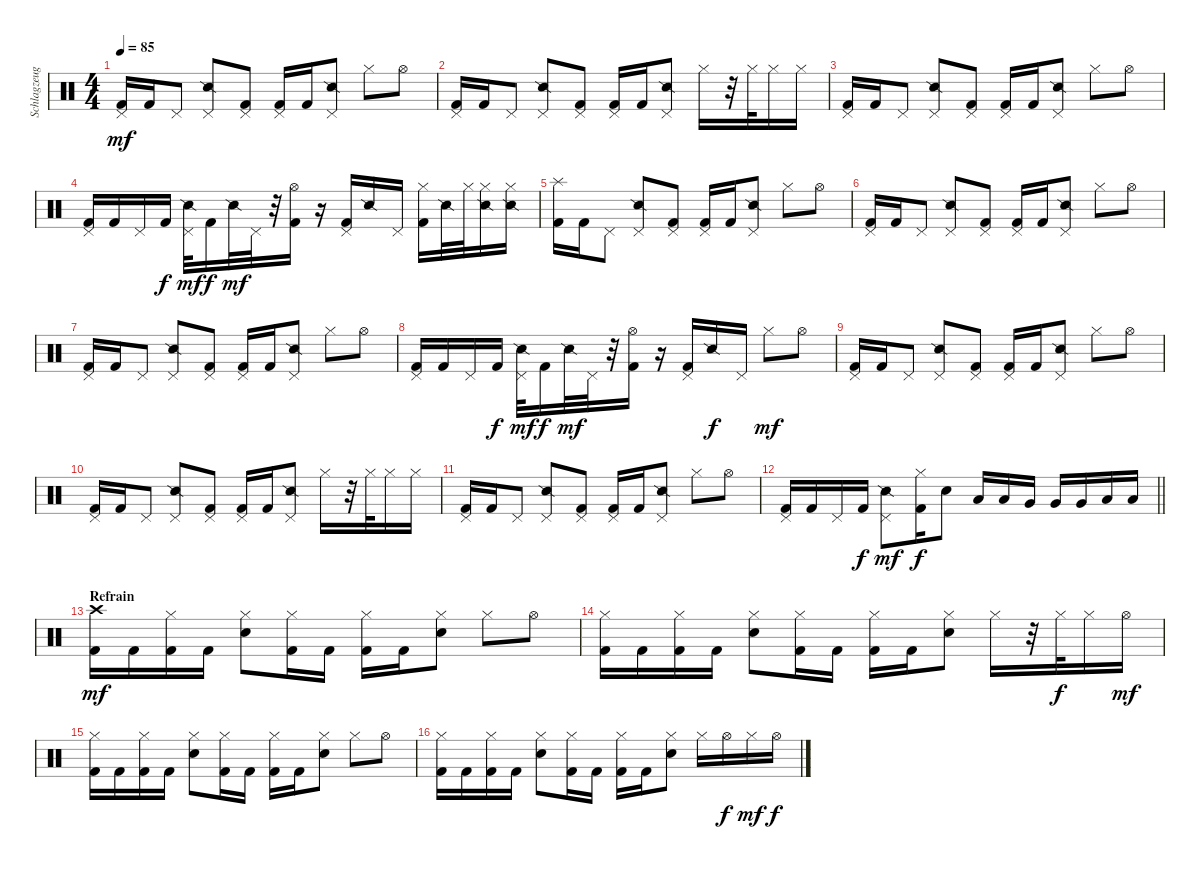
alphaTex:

\track ("Schlagzeug" "Schlagzeug") {instrument percussion}
\staff {score}
\articulation defaults
\ts (4 4)
\tempo 85
\clef neutral
\ks c
("Pedal Hi-Hat (hit)" "Kick (hit) 2").16{dy mf} "Kick (hit) 2".16 "Pedal Hi-Hat (hit)".8 ("Pedal Hi-Hat (hit)" "Snare (side stick) 2").8 ("Pedal Hi-Hat (hit)" "Kick (hit) 2").8 ("Pedal Hi-Hat (hit)" "Kick (hit) 2").16 "Kick (hit) 2".16 ("Pedal Hi-Hat (hit)" "Snare (side stick) 2").8 "Hi-Hat (closed)".8 "Hi-Hat (open)".8 |
("Pedal Hi-Hat (hit)" "Kick (hit) 2").16 "Kick (hit) 2".16 "Pedal Hi-Hat (hit)".8 ("Pedal Hi-Hat (hit)" "Snare (side stick) 2").8 ("Pedal Hi-Hat (hit)" "Kick (hit) 2").8 ("Pedal Hi-Hat (hit)" "Kick (hit) 2").16 "Kick (hit) 2".16 ("Pedal Hi-Hat (hit)" "Snare (side stick) 2").8 "Hi-Hat (closed)".16 r.32 "Hi-Hat (closed)".32 "Hi-Hat (closed)".16 "Hi-Hat (closed)".16 |
("Pedal Hi-Hat (hit)" "Kick (hit) 2").16 "Kick (hit) 2".16 "Pedal Hi-Hat (hit)".8 ("Pedal Hi-Hat (hit)" "Snare (side stick) 2").8 ("Pedal Hi-Hat (hit)" "Kick (hit) 2").8 ("Pedal Hi-Hat (hit)" "Kick (hit) 2").16 "Kick (hit) 2".16 ("Pedal Hi-Hat (hit)" "Snare (side stick) 2").8 "Hi-Hat (closed)".8 "Hi-Hat (open)".8 |
("Pedal Hi-Hat (hit)" "Kick (hit) 2").16 "Kick (hit) 2".16 "Pedal Hi-Hat (hit)".16 "Kick (hit) 2".16{dy f} ("Pedal Hi-Hat (hit)" "Snare (side stick) 2").32{dy mf} "Kick (hit) 2".16{dy f} "Snare (side stick) 2".32{dy mf} "Pedal Hi-Hat (hit)".32 r.32 ("Hi-Hat (open)" "Kick (hit) 2").16 r.16 ("Pedal Hi-Hat (hit)" "Kick (hit) 2").16 "Snare (side stick) 2".16 "Pedal Hi-Hat (hit)".16 ("Hi-Hat (closed)" "Kick (hit) 2").16 "Snare (side stick) 2".32 "Hi-Hat (closed)".32 ("Hi-Hat (closed)" "Snare (side stick) 2").16 ("Hi-Hat (closed)" "Snare (side stick) 2").16 |
("Splash (hit)" "Kick (hit) 2").16 "Kick (hit) 2".16 "Pedal Hi-Hat (hit)".8 ("Pedal Hi-Hat (hit)" "Snare (side stick) 2").8 ("Pedal Hi-Hat (hit)" "Kick (hit) 2").8 ("Pedal Hi-Hat (hit)" "Kick (hit) 2").16 "Kick (hit) 2".16 ("Pedal Hi-Hat (hit)" "Snare (side stick) 2").8 "Hi-Hat (closed)".8 "Hi-Hat (open)".8 |
("Pedal Hi-Hat (hit)" "Kick (hit) 2").16 "Kick (hit) 2".16 "Pedal Hi-Hat (hit)".8 ("Pedal Hi-Hat (hit)" "Snare (side stick) 2").8 ("Pedal Hi-Hat (hit)" "Kick (hit) 2").8 ("Pedal Hi-Hat (hit)" "Kick (hit) 2").16 "Kick (hit) 2".16 ("Pedal Hi-Hat (hit)" "Snare (side stick) 2").8 "Hi-Hat (closed)".8 "Hi-Hat (open)".8 |
("Pedal Hi-Hat (hit)" "Kick (hit) 2").16 "Kick (hit) 2".16 "Pedal Hi-Hat (hit)".8 ("Pedal Hi-Hat (hit)" "Snare (side stick) 2").8 ("Pedal Hi-Hat (hit)" "Kick (hit) 2").8 ("Pedal Hi-Hat (hit)" "Kick (hit) 2").16 "Kick (hit) 2".16 ("Pedal Hi-Hat (hit)" "Snare (side stick) 2").8 "Hi-Hat (closed)".8 "Hi-Hat (open)".8 |
("Pedal Hi-Hat (hit)" "Kick (hit) 2").16 "Kick (hit) 2".16 "Pedal Hi-Hat (hit)".16 "Kick (hit) 2".16{dy f} ("Pedal Hi-Hat (hit)" "Snare (side stick) 2").32{dy mf} "Kick (hit) 2".16{dy f} "Snare (side stick) 2".32{dy mf} "Pedal Hi-Hat (hit)".32 r.32 ("Hi-Hat (open)" "Kick (hit) 2").16 r.16 ("Pedal Hi-Hat (hit)" "Kick (hit) 2").16 "Snare (side stick) 2".16{dy f} "Pedal Hi-Hat (hit)".16 "Hi-Hat (closed)".8{dy mf} "Hi-Hat (open)".8 |
("Pedal Hi-Hat (hit)" "Kick (hit) 2").16 "Kick (hit) 2".16 "Pedal Hi-Hat (hit)".8 ("Pedal Hi-Hat (hit)" "Snare (side stick) 2").8 ("Pedal Hi-Hat (hit)" "Kick (hit) 2").8 ("Pedal Hi-Hat (hit)" "Kick (hit) 2").16 "Kick (hit) 2".16 ("Pedal Hi-Hat (hit)" "Snare (side stick) 2").8 "Hi-Hat (closed)".8 "Hi-Hat (open)".8 |
("Pedal Hi-Hat (hit)" "Kick (hit) 2").16 "Kick (hit) 2".16 "Pedal Hi-Hat (hit)".8 ("Pedal Hi-Hat (hit)" "Snare (side stick) 2").8 ("Pedal Hi-Hat (hit)" "Kick (hit) 2").8 ("Pedal Hi-Hat (hit)" "Kick (hit) 2").16 "Kick (hit) 2".16 ("Pedal Hi-Hat (hit)" "Snare (side stick) 2").8 "Hi-Hat (closed)".16 r.32 "Hi-Hat (closed)".32 "Hi-Hat (closed)".16 "Hi-Hat (closed)".16 |
("Pedal Hi-Hat (hit)" "Kick (hit) 2").16 "Kick (hit) 2".16 "Pedal Hi-Hat (hit)".8 ("Pedal Hi-Hat (hit)" "Snare (side stick) 2").8 ("Pedal Hi-Hat (hit)" "Kick (hit) 2").8 ("Pedal Hi-Hat (hit)" "Kick (hit) 2").16 "Kick (hit) 2".16 ("Pedal Hi-Hat (hit)" "Snare (side stick) 2").8 "Hi-Hat (closed)".8 "Hi-Hat (open)".8 |
\barLineRight lightlight
("Pedal Hi-Hat (hit)" "Kick (hit) 2").16 "Kick (hit) 2".16 "Pedal Hi-Hat (hit)".16 "Kick (hit) 2".16{dy f} ("Pedal Hi-Hat (hit)" "Snare (side stick) 2").8{dy mf} ("Hi-Hat (closed)" "Kick (hit) 2").16{dy f} "Snare (hit) 2".8 "Low Tom (hit)".16 "Low Tom (hit)".16 "Very Low Tom (hit)".16 "Very Low Tom (hit)".16 "Very Low Tom (hit)".16 "Low Floor Tom (hit)".16 "Low Floor Tom (hit)".16 |
\section ("" "Refrain")
("Crash high (hit)" "Kick (hit) 2").16{dy mf} "Kick (hit) 2".16 ("Hi-Hat (closed)" "Kick (hit) 2").16 "Kick (hit) 2".16 ("Hi-Hat (closed)" "Snare (hit) 2").8 ("Hi-Hat (closed)" "Kick (hit) 2").16 "Kick (hit) 2".16 ("Hi-Hat (closed)" "Kick (hit) 2").16 "Kick (hit) 2".16 ("Hi-Hat (closed)" "Snare (hit) 2").8 "Hi-Hat (closed)".8 "Hi-Hat (open)".8 |
("Hi-Hat (closed)" "Kick (hit) 2").16 "Kick (hit) 2".16 ("Hi-Hat (closed)" "Kick (hit) 2").16 "Kick (hit) 2".16 ("Hi-Hat (closed)" "Snare (hit) 2").8 ("Hi-Hat (closed)" "Kick (hit) 2").16 "Kick (hit) 2".16 ("Hi-Hat (closed)" "Kick (hit) 2").16 "Kick (hit) 2".16 ("Hi-Hat (closed)" "Snare (hit) 2").8 "Hi-Hat (closed)".16 r.32 "Hi-Hat (closed)".32{dy f} "Hi-Hat (closed)".16 "Hi-Hat (open)".16{dy mf} |
("Hi-Hat (closed)" "Kick (hit) 2").16 "Kick (hit) 2".16 ("Hi-Hat (closed)" "Kick (hit) 2").16 "Kick (hit) 2".16 ("Hi-Hat (closed)" "Snare (hit) 2").8 ("Hi-Hat (closed)" "Kick (hit) 2").16 "Kick (hit) 2".16 ("Hi-Hat (closed)" "Kick (hit) 2").16 "Kick (hit) 2".16 ("Hi-Hat (closed)" "Snare (hit) 2").8 "Hi-Hat (closed)".8 "Hi-Hat (open)".8 |
("Hi-Hat (closed)" "Kick (hit) 2").16 "Kick (hit) 2".16 ("Hi-Hat (closed)" "Kick (hit) 2").16 "Kick (hit) 2".16 ("Hi-Hat (closed)" "Snare (hit) 2").8 ("Hi-Hat (closed)" "Kick (hit) 2").16 "Kick (hit) 2".16 ("Hi-Hat (closed)" "Kick (hit) 2").16 "Kick (hit) 2".16 ("Hi-Hat (closed)" "Snare (hit) 2").8 "Hi-Hat (closed)".16 "Hi-Hat (open)".16{dy f} "Hi-Hat (closed)".16{dy mf} "Hi-Hat (open)".16{dy f}
